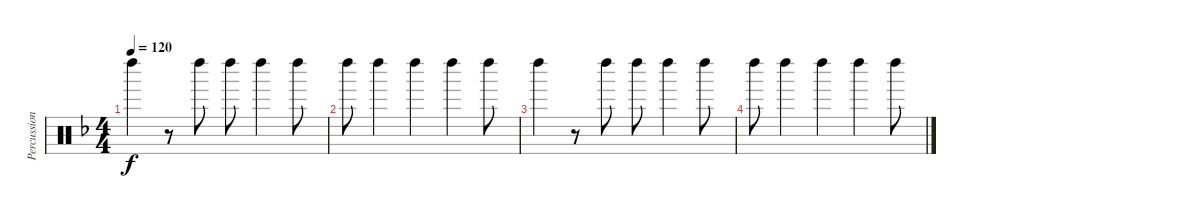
\track ("Percussion" "Percussion") {instrument percussion}
\staff {score}
\articulation defaults
\ts (4 4)
\tempo 120
\clef neutral
\ks f "Left Maraca (hit)".4{dy f}
r.8 "Left Maraca (hit)".8 "Left Maraca (hit)".8 "Left Maraca (hit)".4 "Left Maraca (hit)".8 |
"Left Maraca (hit)".8 "Left Maraca (hit)".4 "Left Maraca (hit)".4 "Left Maraca (hit)".4 "Left Maraca (hit)".8 |
"Left Maraca (hit)".4 r.8 "Left Maraca (hit)".8 "Left Maraca (hit)".8 "Left Maraca (hit)".4 "Left Maraca (hit)".8 |
"Left Maraca (hit)".8 "Left Maraca (hit)".4 "Left Maraca (hit)".4 "Left Maraca (hit)".4 "Left Maraca (hit)".8
